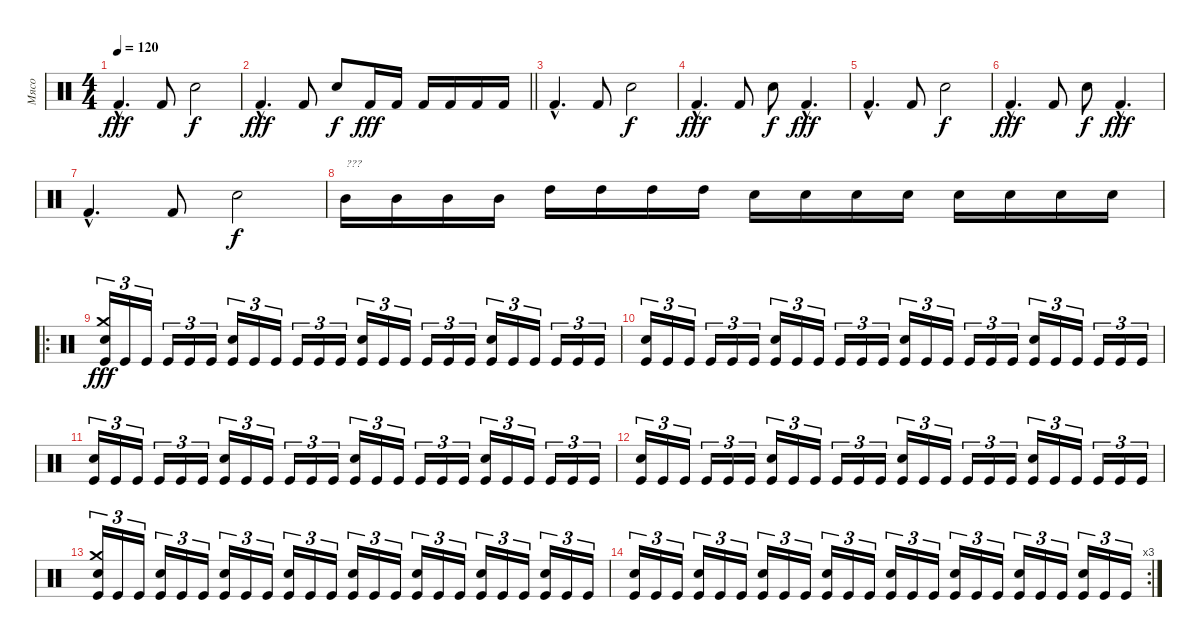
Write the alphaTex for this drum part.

\track ("Мясо" "Мясо") {instrument percussion}
\staff {score}
\articulation defaults
\ts (4 4)
\tempo 120
\clef neutral
\ks c "Kick (hit) 2"{hac}.4{d dy fff} "Kick (hit) 2".8 "Snare (hit) 2".2{dy f}
|
\barLineRight lightlight "Kick (hit) 2"{hac}.4{d dy fff} "Kick (hit) 2".8 "Snare (hit) 2".8{dy f} "Kick (hit) 2".16{dy fff} "Kick (hit) 2".16 "Kick (hit) 2".16 "Kick (hit) 2".16 "Kick (hit) 2".16 "Kick (hit) 2".16
|
"Kick (hit) 2"{hac}.4{d} "Kick (hit) 2".8 "Electric Snare (hit)".2{dy f} |
"Kick (hit) 2"{hac}.4{d dy fff} "Kick (hit) 2".8 "Snare (hit) 2".8{dy f} "Kick (hit) 2"{hac}.4{d dy fff} |
"Kick (hit) 2"{hac}.4{d} "Kick (hit) 2".8 "Snare (hit) 2".2{dy f} |
"Kick (hit) 2"{hac}.4{d dy fff} "Kick (hit) 2".8 "Snare (hit) 2".8{dy f} "Kick (hit) 2"{hac}.4{d dy fff} |
"Kick (hit) 2"{hac}.4{d} "Kick (hit) 2".8 "Snare (hit) 2".2{dy f} |
"Mid Tom (hit)".16{txt "???"} "Mid Tom (hit)".16 "Mid Tom (hit)".16 "Mid Tom (hit)".16 "High Tom (hit)".16 "High Tom (hit)".16 "High Tom (hit)".16 "High Tom (hit)".16 "Snare (hit) 2".16 "Snare (hit) 2".16 "Snare (hit) 2".16 "Snare (hit) 2".16 "Snare (hit) 2".16 "Snare (hit) 2".16 "Snare (hit) 2".16 "Snare (hit) 2".16 |
\ro
("Crash medium (hit)" "Snare (hit) 2" "Kick (hit)").16{tu (3 2) dy fff} "Kick (hit)".16{tu (3 2)} "Kick (hit)".16{tu (3 2)} "Kick (hit)".16{tu (3 2)} "Kick (hit)".16{tu (3 2)} "Kick (hit)".16{tu (3 2)} ("Snare (hit) 2" "Kick (hit)").16{tu (3 2)} "Kick (hit)".16{tu (3 2)} "Kick (hit)".16{tu (3 2)} "Kick (hit)".16{tu (3 2)} "Kick (hit)".16{tu (3 2)} "Kick (hit)".16{tu (3 2)} ("Snare (hit) 2" "Kick (hit)").16{tu (3 2)} "Kick (hit)".16{tu (3 2)} "Kick (hit)".16{tu (3 2)} "Kick (hit)".16{tu (3 2)} "Kick (hit)".16{tu (3 2)} "Kick (hit)".16{tu (3 2)} ("Snare (hit) 2" "Kick (hit)").16{tu (3 2)} "Kick (hit)".16{tu (3 2)} "Kick (hit)".16{tu (3 2)} "Kick (hit)".16{tu (3 2)} "Kick (hit)".16{tu (3 2)} "Kick (hit)".16{tu (3 2)} |
("Snare (hit) 2" "Kick (hit)").16{tu (3 2)} "Kick (hit)".16{tu (3 2)} "Kick (hit)".16{tu (3 2)} "Kick (hit)".16{tu (3 2)} "Kick (hit)".16{tu (3 2)} "Kick (hit)".16{tu (3 2)} ("Snare (hit) 2" "Kick (hit)").16{tu (3 2)} "Kick (hit)".16{tu (3 2)} "Kick (hit)".16{tu (3 2)} "Kick (hit)".16{tu (3 2)} "Kick (hit)".16{tu (3 2)} "Kick (hit)".16{tu (3 2)} ("Snare (hit) 2" "Kick (hit)").16{tu (3 2)} "Kick (hit)".16{tu (3 2)} "Kick (hit)".16{tu (3 2)} "Kick (hit)".16{tu (3 2)} "Kick (hit)".16{tu (3 2)} "Kick (hit)".16{tu (3 2)} ("Snare (hit) 2" "Kick (hit)").16{tu (3 2)} "Kick (hit)".16{tu (3 2)} "Kick (hit)".16{tu (3 2)} "Kick (hit)".16{tu (3 2)} "Kick (hit)".16{tu (3 2)} "Kick (hit)".16{tu (3 2)} |
("Snare (hit) 2" "Kick (hit)").16{tu (3 2)} "Kick (hit)".16{tu (3 2)} "Kick (hit)".16{tu (3 2)} "Kick (hit)".16{tu (3 2)} "Kick (hit)".16{tu (3 2)} "Kick (hit)".16{tu (3 2)} ("Snare (hit) 2" "Kick (hit)").16{tu (3 2)} "Kick (hit)".16{tu (3 2)} "Kick (hit)".16{tu (3 2)} "Kick (hit)".16{tu (3 2)} "Kick (hit)".16{tu (3 2)} "Kick (hit)".16{tu (3 2)} ("Snare (hit) 2" "Kick (hit)").16{tu (3 2)} "Kick (hit)".16{tu (3 2)} "Kick (hit)".16{tu (3 2)} "Kick (hit)".16{tu (3 2)} "Kick (hit)".16{tu (3 2)} "Kick (hit)".16{tu (3 2)} ("Snare (hit) 2" "Kick (hit)").16{tu (3 2)} "Kick (hit)".16{tu (3 2)} "Kick (hit)".16{tu (3 2)} "Kick (hit)".16{tu (3 2)} "Kick (hit)".16{tu (3 2)} "Kick (hit)".16{tu (3 2)} |
("Snare (hit) 2" "Kick (hit)").16{tu (3 2)} "Kick (hit)".16{tu (3 2)} "Kick (hit)".16{tu (3 2)} "Kick (hit)".16{tu (3 2)} "Kick (hit)".16{tu (3 2)} "Kick (hit)".16{tu (3 2)} ("Snare (hit) 2" "Kick (hit)").16{tu (3 2)} "Kick (hit)".16{tu (3 2)} "Kick (hit)".16{tu (3 2)} "Kick (hit)".16{tu (3 2)} "Kick (hit)".16{tu (3 2)} "Kick (hit)".16{tu (3 2)} ("Snare (hit) 2" "Kick (hit)").16{tu (3 2)} "Kick (hit)".16{tu (3 2)} "Kick (hit)".16{tu (3 2)} "Kick (hit)".16{tu (3 2)} "Kick (hit)".16{tu (3 2)} "Kick (hit)".16{tu (3 2)} ("Snare (hit) 2" "Kick (hit)").16{tu (3 2)} "Kick (hit)".16{tu (3 2)} "Kick (hit)".16{tu (3 2)} "Kick (hit)".16{tu (3 2)} "Kick (hit)".16{tu (3 2)} "Kick (hit)".16{tu (3 2)} |
("Crash medium (hit)" "Snare (hit) 2" "Kick (hit)").16{tu (3 2)} "Kick (hit)".16{tu (3 2)} "Kick (hit)".16{tu (3 2)} ("Snare (hit) 2" "Kick (hit)").16{tu (3 2)} "Kick (hit)".16{tu (3 2)} "Kick (hit)".16{tu (3 2)} ("Snare (hit) 2" "Kick (hit)").16{tu (3 2)} "Kick (hit)".16{tu (3 2)} "Kick (hit)".16{tu (3 2)} ("Snare (hit) 2" "Kick (hit)").16{tu (3 2)} "Kick (hit)".16{tu (3 2)} "Kick (hit)".16{tu (3 2)} ("Snare (hit) 2" "Kick (hit)").16{tu (3 2)} "Kick (hit)".16{tu (3 2)} "Kick (hit)".16{tu (3 2)} ("Snare (hit) 2" "Kick (hit)").16{tu (3 2)} "Kick (hit)".16{tu (3 2)} "Kick (hit)".16{tu (3 2)} ("Snare (hit) 2" "Kick (hit)").16{tu (3 2)} "Kick (hit)".16{tu (3 2)} "Kick (hit)".16{tu (3 2)} ("Snare (hit) 2" "Kick (hit)").16{tu (3 2)} "Kick (hit)".16{tu (3 2)} "Kick (hit)".16{tu (3 2)} |
\rc 3
("Snare (hit) 2" "Kick (hit)").16{tu (3 2)} "Kick (hit)".16{tu (3 2)} "Kick (hit)".16{tu (3 2)} ("Snare (hit) 2" "Kick (hit)").16{tu (3 2)} "Kick (hit)".16{tu (3 2)} "Kick (hit)".16{tu (3 2)} ("Snare (hit) 2" "Kick (hit)").16{tu (3 2)} "Kick (hit)".16{tu (3 2)} "Kick (hit)".16{tu (3 2)} ("Snare (hit) 2" "Kick (hit)").16{tu (3 2)} "Kick (hit)".16{tu (3 2)} "Kick (hit)".16{tu (3 2)} ("Snare (hit) 2" "Kick (hit)").16{tu (3 2)} "Kick (hit)".16{tu (3 2)} "Kick (hit)".16{tu (3 2)} ("Snare (hit) 2" "Kick (hit)").16{tu (3 2)} "Kick (hit)".16{tu (3 2)} "Kick (hit)".16{tu (3 2)} ("Snare (hit) 2" "Kick (hit)").16{tu (3 2)} "Kick (hit)".16{tu (3 2)} "Kick (hit)".16{tu (3 2)} ("Snare (hit) 2" "Kick (hit)").16{tu (3 2)} "Kick (hit)".16{tu (3 2)} "Kick (hit)".16{tu (3 2)}
